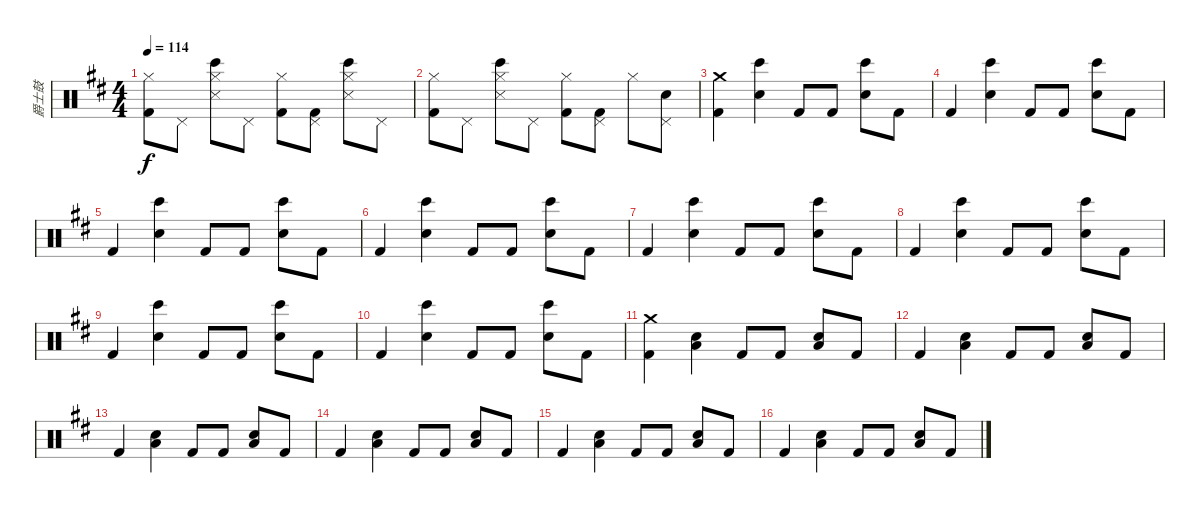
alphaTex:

\track ("爵士鼓" "爵士鼓") {instrument percussion}
\staff {score}
\articulation defaults
\ts (4 4)
\tempo 114
\clef neutral
\ks d
("Hi-Hat (closed)" "Kick (hit) 2").8{dy f} "Pedal Hi-Hat (hit)".8 ("Hi-Hat (closed)" "Snare (side stick) 3" "Bongo High (hit)").8 "Pedal Hi-Hat (hit)".8 ("Hi-Hat (closed)" "Kick (hit) 2").8 ("Pedal Hi-Hat (hit)" "Kick (hit) 2").8 ("Hi-Hat (closed)" "Snare (side stick) 3" "Bongo High (hit)").8 "Pedal Hi-Hat (hit)".8 |
("Hi-Hat (closed)" "Kick (hit) 2").8 "Pedal Hi-Hat (hit)".8 ("Hi-Hat (closed)" "Snare (side stick) 3" "Bongo High (hit)").8 "Pedal Hi-Hat (hit)".8 ("Hi-Hat (closed)" "Kick (hit) 2").8 ("Pedal Hi-Hat (hit)" "Kick (hit) 2").8 "Hi-Hat (closed)".8 ("Pedal Hi-Hat (hit)" "Snare (hit) 2").8 |
("Kick (hit) 2" "Crash medium (hit)").4 ("Bongo High (hit)" "Snare (hit) 2").4 "Kick (hit) 2".8 "Kick (hit) 2".8 ("Bongo High (hit)" "Snare (hit) 2").8 "Kick (hit) 2".8 |
"Kick (hit) 2".4 ("Bongo High (hit)" "Snare (hit) 2").4 "Kick (hit) 2".8 "Kick (hit) 2".8 ("Bongo High (hit)" "Snare (hit) 2").8 "Kick (hit) 2".8 |
"Kick (hit) 2".4 ("Bongo High (hit)" "Snare (hit) 2").4 "Kick (hit) 2".8 "Kick (hit) 2".8 ("Bongo High (hit)" "Snare (hit) 2").8 "Kick (hit) 2".8 |
"Kick (hit) 2".4 ("Bongo High (hit)" "Snare (hit) 2").4 "Kick (hit) 2".8 "Kick (hit) 2".8 ("Bongo High (hit)" "Snare (hit) 2").8 "Kick (hit) 2".8 |
"Kick (hit) 2".4 ("Bongo High (hit)" "Snare (hit) 2").4 "Kick (hit) 2".8 "Kick (hit) 2".8 ("Bongo High (hit)" "Snare (hit) 2").8 "Kick (hit) 2".8 |
"Kick (hit) 2".4 ("Bongo High (hit)" "Snare (hit) 2").4 "Kick (hit) 2".8 "Kick (hit) 2".8 ("Bongo High (hit)" "Snare (hit) 2").8 "Kick (hit) 2".8 |
"Kick (hit) 2".4 ("Bongo High (hit)" "Snare (hit) 2").4 "Kick (hit) 2".8 "Kick (hit) 2".8 ("Bongo High (hit)" "Snare (hit) 2").8 "Kick (hit) 2".8 |
"Kick (hit) 2".4 ("Bongo High (hit)" "Snare (hit) 2").4 "Kick (hit) 2".8 "Kick (hit) 2".8 ("Bongo High (hit)" "Snare (hit) 2").8 "Kick (hit) 2".8 |
("Kick (hit) 2" "Crash medium (hit)").4 ("Low Tom (hit)" "Snare (hit) 2").4 "Kick (hit) 2".8 "Kick (hit) 2".8 ("Low Tom (hit)" "Snare (hit) 2").8 "Kick (hit) 2".8 |
"Kick (hit) 2".4 ("Low Tom (hit)" "Snare (hit) 2").4 "Kick (hit) 2".8 "Kick (hit) 2".8 ("Low Tom (hit)" "Snare (hit) 2").8 "Kick (hit) 2".8 |
"Kick (hit) 2".4 ("Low Tom (hit)" "Snare (hit) 2").4 "Kick (hit) 2".8 "Kick (hit) 2".8 ("Low Tom (hit)" "Snare (hit) 2").8 "Kick (hit) 2".8 |
"Kick (hit) 2".4 ("Low Tom (hit)" "Snare (hit) 2").4 "Kick (hit) 2".8 "Kick (hit) 2".8 ("Low Tom (hit)" "Snare (hit) 2").8 "Kick (hit) 2".8 |
"Kick (hit) 2".4 ("Low Tom (hit)" "Snare (hit) 2").4 "Kick (hit) 2".8 "Kick (hit) 2".8 ("Low Tom (hit)" "Snare (hit) 2").8 "Kick (hit) 2".8 |
"Kick (hit) 2".4 ("Low Tom (hit)" "Snare (hit) 2").4 "Kick (hit) 2".8 "Kick (hit) 2".8 ("Low Tom (hit)" "Snare (hit) 2").8 "Kick (hit) 2".8
